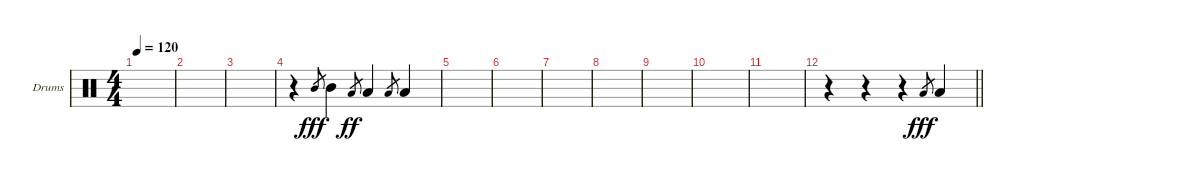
\defaultSystemsLayout 4
\bracketExtendMode groupsimilarinstruments
\firstSystemTrackNameOrientation horizontal
\otherSystemsTrackNameOrientation horizontal
\track ("Drums Aux" "Drums") {instrument percussion}
\staff {score}
\articulation defaults
\ts (4 4)
\tempo 120
\clef neutral
\ks c
|
|
|
r.4 "Mid Tom (hit)".8{gr dy fff} "Mid Tom (hit)".4 "Low Tom (hit)".8{gr dy ff} "Low Tom (hit)".4 "Low Tom (hit)".8{gr} "Low Tom (hit)".4 |
|
|
|
|
|
|
|
\barLineRight lightlight
r.4 r.4 r.4 "Low Tom (hit)".8{gr dy fff} "Low Tom (hit)".4
